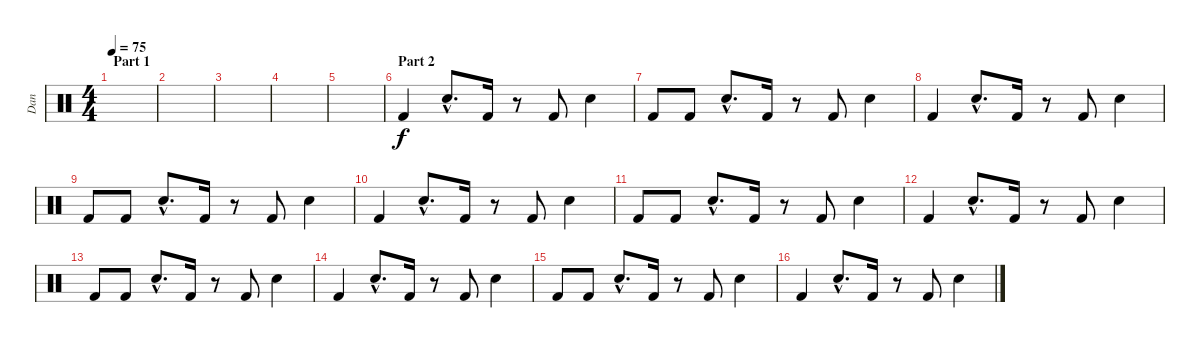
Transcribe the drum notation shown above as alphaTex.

\track ("Dan" "Dan") {instrument percussion}
\staff {score}
\articulation defaults
\ts (4 4)
\section ("" "Part 1")
\tempo 75
\clef neutral
\ks c
|
|
|
|
|
\section ("" "Part 2")
"Kick (hit) 2".4 "Snare (hit) 2"{hac}.8{d} "Kick (hit) 2".16 r.8 "Kick (hit) 2".8 "Snare (hit) 2".4 |
"Kick (hit) 2".8 "Kick (hit) 2".8 "Snare (hit) 2"{hac}.8{d} "Kick (hit) 2".16 r.8 "Kick (hit) 2".8 "Snare (hit) 2".4 |
"Kick (hit) 2".4 "Snare (hit) 2"{hac}.8{d} "Kick (hit) 2".16 r.8 "Kick (hit) 2".8 "Snare (hit) 2".4 |
"Kick (hit) 2".8 "Kick (hit) 2".8 "Snare (hit) 2"{hac}.8{d} "Kick (hit) 2".16 r.8 "Kick (hit) 2".8 "Snare (hit) 2".4 |
"Kick (hit) 2".4 "Snare (hit) 2"{hac}.8{d} "Kick (hit) 2".16 r.8 "Kick (hit) 2".8 "Snare (hit) 2".4 |
"Kick (hit) 2".8 "Kick (hit) 2".8 "Snare (hit) 2"{hac}.8{d} "Kick (hit) 2".16 r.8 "Kick (hit) 2".8 "Snare (hit) 2".4 |
"Kick (hit) 2".4 "Snare (hit) 2"{hac}.8{d} "Kick (hit) 2".16 r.8 "Kick (hit) 2".8 "Snare (hit) 2".4 |
"Kick (hit) 2".8 "Kick (hit) 2".8 "Snare (hit) 2"{hac}.8{d} "Kick (hit) 2".16 r.8 "Kick (hit) 2".8 "Snare (hit) 2".4 |
"Kick (hit) 2".4 "Snare (hit) 2"{hac}.8{d} "Kick (hit) 2".16 r.8 "Kick (hit) 2".8 "Snare (hit) 2".4 |
"Kick (hit) 2".8 "Kick (hit) 2".8 "Snare (hit) 2"{hac}.8{d} "Kick (hit) 2".16 r.8 "Kick (hit) 2".8 "Snare (hit) 2".4 |
"Kick (hit) 2".4 "Snare (hit) 2"{hac}.8{d} "Kick (hit) 2".16 r.8 "Kick (hit) 2".8 "Snare (hit) 2".4
